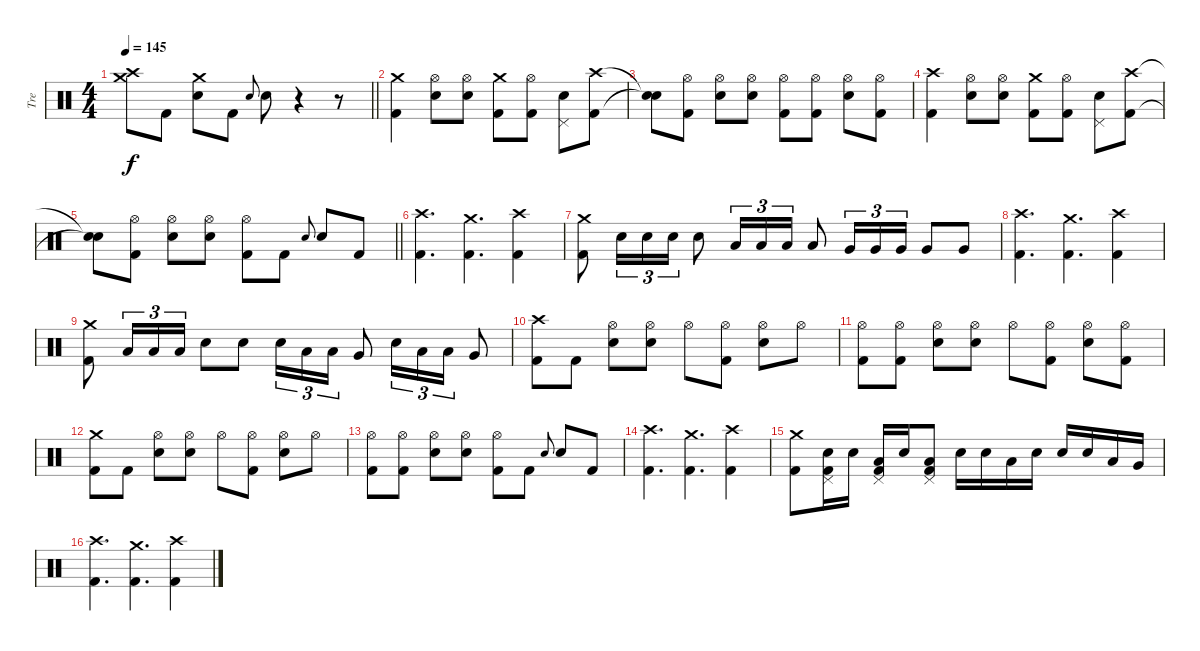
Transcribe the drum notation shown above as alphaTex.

\track ("Tre" "Tre") {instrument percussion}
\staff {score}
\articulation defaults
\ts (4 4)
\tempo 145
\clef neutral
\barLineRight lightlight
\ks c
("Crash high (hit)" "Crash medium (hit)").8{dy f} "Kick (hit) 2".8 ("Crash medium (hit)" "Snare (hit) 2").8 "Kick (hit) 2".8 "Snare (hit) 2".8{gr onbeat} "Snare (hit) 2".8 r.4 r.8 |
("Crash medium (hit)" "Kick (hit) 2").4 ("Hi-Hat (open)" "Snare (hit) 2").8 ("Hi-Hat (open)" "Snare (hit) 2").8 ("Crash medium (hit)" "Kick (hit) 2").8 ("Hi-Hat (open)" "Kick (hit) 2").8 ("Snare (hit) 2" "Pedal Hi-Hat (hit)").8 ("Crash high (hit)" "Kick (hit) 2").8 |
("Snare (hit)"{t} "Snare (hit)"{t}).8 ("Hi-Hat (open)" "Kick (hit) 2").8 ("Hi-Hat (open)" "Snare (hit) 2").8 ("Hi-Hat (open)" "Snare (hit) 2").8 ("Hi-Hat (open)" "Kick (hit) 2").8 ("Hi-Hat (open)" "Kick (hit) 2").8 ("Hi-Hat (open)" "Snare (hit) 2").8 ("Hi-Hat (open)" "Kick (hit) 2").8 |
("Crash high (hit)" "Kick (hit) 2").4 ("Hi-Hat (open)" "Snare (hit) 2").8 ("Hi-Hat (open)" "Snare (hit) 2").8 ("Crash medium (hit)" "Kick (hit) 2").8 ("Hi-Hat (open)" "Kick (hit) 2").8 ("Snare (hit) 2" "Pedal Hi-Hat (hit)").8 ("Crash high (hit)" "Kick (hit) 2").8 |
\barLineRight lightlight
("Snare (hit)"{t} "Snare (hit)"{t}).8 ("Hi-Hat (open)" "Kick (hit) 2").8 ("Hi-Hat (open)" "Snare (hit) 2").8 ("Hi-Hat (open)" "Snare (hit) 2").8 ("Hi-Hat (open)" "Kick (hit) 2").8 "Kick (hit) 2".8 "Snare (hit) 2".8{gr onbeat} "Snare (hit) 2".8 "Kick (hit) 2".8 |
("Crash high (hit)" "Kick (hit) 2").4{d} ("Crash medium (hit)" "Kick (hit) 2").4{d} ("Crash high (hit)" "Kick (hit) 2").4 |
("Crash medium (hit)" "Kick (hit) 2").8 "Snare (hit) 2".16{tu (3 2)} "Snare (hit) 2".16{tu (3 2)} "Snare (hit) 2".16{tu (3 2)} "Snare (hit) 2".8 "Low Tom (hit)".16{tu (3 2)} "Low Tom (hit)".16{tu (3 2)} "Low Tom (hit)".16{tu (3 2)} "Low Tom (hit)".8 "Very Low Tom (hit)".16{tu (3 2)} "Very Low Tom (hit)".16{tu (3 2)} "Very Low Tom (hit)".16{tu (3 2)} "Very Low Tom (hit)".8 "Very Low Tom (hit)".8 |
("Crash high (hit)" "Kick (hit) 2").4{d} ("Crash medium (hit)" "Kick (hit) 2").4{d} ("Crash high (hit)" "Kick (hit) 2").4 |
("Crash medium (hit)" "Kick (hit) 2").8 "Low Tom (hit)".16{tu (3 2)} "Low Tom (hit)".16{tu (3 2)} "Low Tom (hit)".16{tu (3 2)} "Snare (hit) 2".8 "Snare (hit) 2".8 "Snare (hit) 2".16{tu (3 2)} "Low Tom (hit)".16{tu (3 2)} "Low Tom (hit)".16{tu (3 2)} "Very Low Tom (hit)".8 "Snare (hit) 2".16{tu (3 2)} "Low Tom (hit)".16{tu (3 2)} "Low Tom (hit)".16{tu (3 2)} "Very Low Tom (hit)".8 |
("Crash high (hit)" "Kick (hit) 2").8 "Kick (hit) 2".8 ("Hi-Hat (open)" "Snare (hit) 2").8 ("Hi-Hat (open)" "Snare (hit) 2").8 "Hi-Hat (open)".8 ("Hi-Hat (open)" "Kick (hit) 2").8 ("Hi-Hat (open)" "Snare (hit) 2").8 "Hi-Hat (open)".8 |
("Hi-Hat (open)" "Kick (hit) 2").8 ("Hi-Hat (open)" "Kick (hit) 2").8 ("Hi-Hat (open)" "Snare (hit) 2").8 ("Hi-Hat (open)" "Snare (hit) 2").8 "Hi-Hat (open)".8 ("Hi-Hat (open)" "Kick (hit) 2").8 ("Hi-Hat (open)" "Snare (hit) 2").8 ("Hi-Hat (open)" "Kick (hit) 2").8 |
("Crash medium (hit)" "Kick (hit) 2").8 "Kick (hit) 2".8 ("Hi-Hat (open)" "Snare (hit) 2").8 ("Hi-Hat (open)" "Snare (hit) 2").8 "Hi-Hat (open)".8 ("Hi-Hat (open)" "Kick (hit) 2").8 ("Hi-Hat (open)" "Snare (hit) 2").8 "Hi-Hat (open)".8 |
("Hi-Hat (open)" "Kick (hit) 2").8 ("Hi-Hat (open)" "Kick (hit) 2").8 ("Hi-Hat (open)" "Snare (hit) 2").8 ("Hi-Hat (open)" "Snare (hit) 2").8 ("Hi-Hat (open)" "Kick (hit) 2").8 "Kick (hit) 2".8 "Snare (hit) 2".8{gr onbeat} "Snare (hit) 2".8 "Kick (hit) 2".8 |
("Crash high (hit)" "Kick (hit) 2").4{d} ("Crash medium (hit)" "Kick (hit) 2").4{d} ("Crash high (hit)" "Kick (hit) 2").4 |
("Crash medium (hit)" "Kick (hit) 2").8 ("Snare (hit) 2" "Pedal Hi-Hat (hit)" "Kick (hit) 2").16 "Snare (hit) 2".16 ("Low Tom (hit)" "Pedal Hi-Hat (hit)" "Kick (hit) 2").16 "Snare (hit) 2".16 ("Low Tom (hit)" "Pedal Hi-Hat (hit)" "Kick (hit) 2").8 "Snare (hit) 2".16 "Snare (hit) 2".16 "Low Tom (hit)".16 "Snare (hit) 2".16 "Snare (hit) 2".16 "Snare (hit) 2".16 "Low Tom (hit)".16 "Very Low Tom (hit)".16 |
("Crash high (hit)" "Kick (hit) 2").4{d} ("Crash medium (hit)" "Kick (hit) 2").4{d} ("Crash high (hit)" "Kick (hit) 2").4
